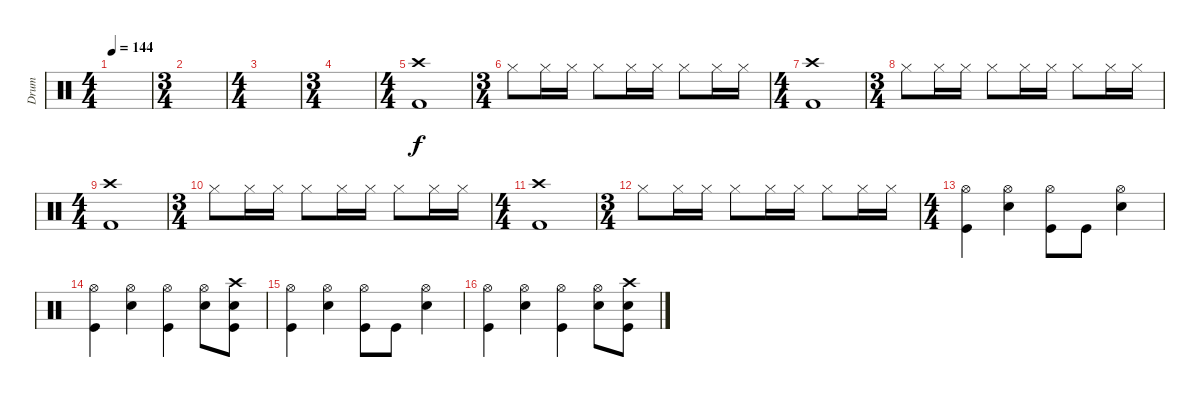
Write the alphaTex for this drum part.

\track ("Drum" "Drum") {instrument percussion}
\staff {score}
\articulation defaults
\ts (4 4)
\tempo 144
\clef neutral
\ks c
|
\ts (3 4)
|
\ts (4 4)
|
\ts (3 4)
|
\ts (4 4)
("Crash high (hit)" "Kick (hit) 2").1 |
\ts (3 4)
"Hi-Hat (closed)".8 "Hi-Hat (closed)".16 "Hi-Hat (closed)".16 "Hi-Hat (closed)".8 "Hi-Hat (closed)".16 "Hi-Hat (closed)".16 "Hi-Hat (closed)".8 "Hi-Hat (closed)".16 "Hi-Hat (closed)".16 |
\ts (4 4)
("Crash high (hit)" "Kick (hit) 2").1 |
\ts (3 4)
"Hi-Hat (closed)".8 "Hi-Hat (closed)".16 "Hi-Hat (closed)".16 "Hi-Hat (closed)".8 "Hi-Hat (closed)".16 "Hi-Hat (closed)".16 "Hi-Hat (closed)".8 "Hi-Hat (closed)".16 "Hi-Hat (closed)".16 |
\ts (4 4)
("Crash high (hit)" "Kick (hit) 2").1 |
\ts (3 4)
"Hi-Hat (closed)".8 "Hi-Hat (closed)".16 "Hi-Hat (closed)".16 "Hi-Hat (closed)".8 "Hi-Hat (closed)".16 "Hi-Hat (closed)".16 "Hi-Hat (closed)".8 "Hi-Hat (closed)".16 "Hi-Hat (closed)".16 |
\ts (4 4)
("Crash high (hit)" "Kick (hit) 2").1 |
\ts (3 4)
"Hi-Hat (closed)".8 "Hi-Hat (closed)".16 "Hi-Hat (closed)".16 "Hi-Hat (closed)".8 "Hi-Hat (closed)".16 "Hi-Hat (closed)".16 "Hi-Hat (closed)".8 "Hi-Hat (closed)".16 "Hi-Hat (closed)".16 |
\ts (4 4)
("Hi-Hat (open)" "Kick (hit)").4 ("Hi-Hat (open)" "Electric Snare (hit)").4 ("Hi-Hat (open)" "Kick (hit)").8 "Kick (hit)".8 ("Hi-Hat (open)" "Electric Snare (hit)").4 |
("Hi-Hat (open)" "Kick (hit)").4 ("Hi-Hat (open)" "Electric Snare (hit)").4 ("Hi-Hat (open)" "Kick (hit)").4 ("Hi-Hat (open)" "Electric Snare (hit)").8 ("Crash high (hit)" "Electric Snare (hit)" "Kick (hit)").8 |
("Hi-Hat (open)" "Kick (hit)").4 ("Hi-Hat (open)" "Electric Snare (hit)").4 ("Hi-Hat (open)" "Kick (hit)").8 "Kick (hit)".8 ("Hi-Hat (open)" "Electric Snare (hit)").4 |
("Hi-Hat (open)" "Kick (hit)").4 ("Hi-Hat (open)" "Electric Snare (hit)").4 ("Hi-Hat (open)" "Kick (hit)").4 ("Hi-Hat (open)" "Electric Snare (hit)").8 ("Crash high (hit)" "Electric Snare (hit)" "Kick (hit)").8
